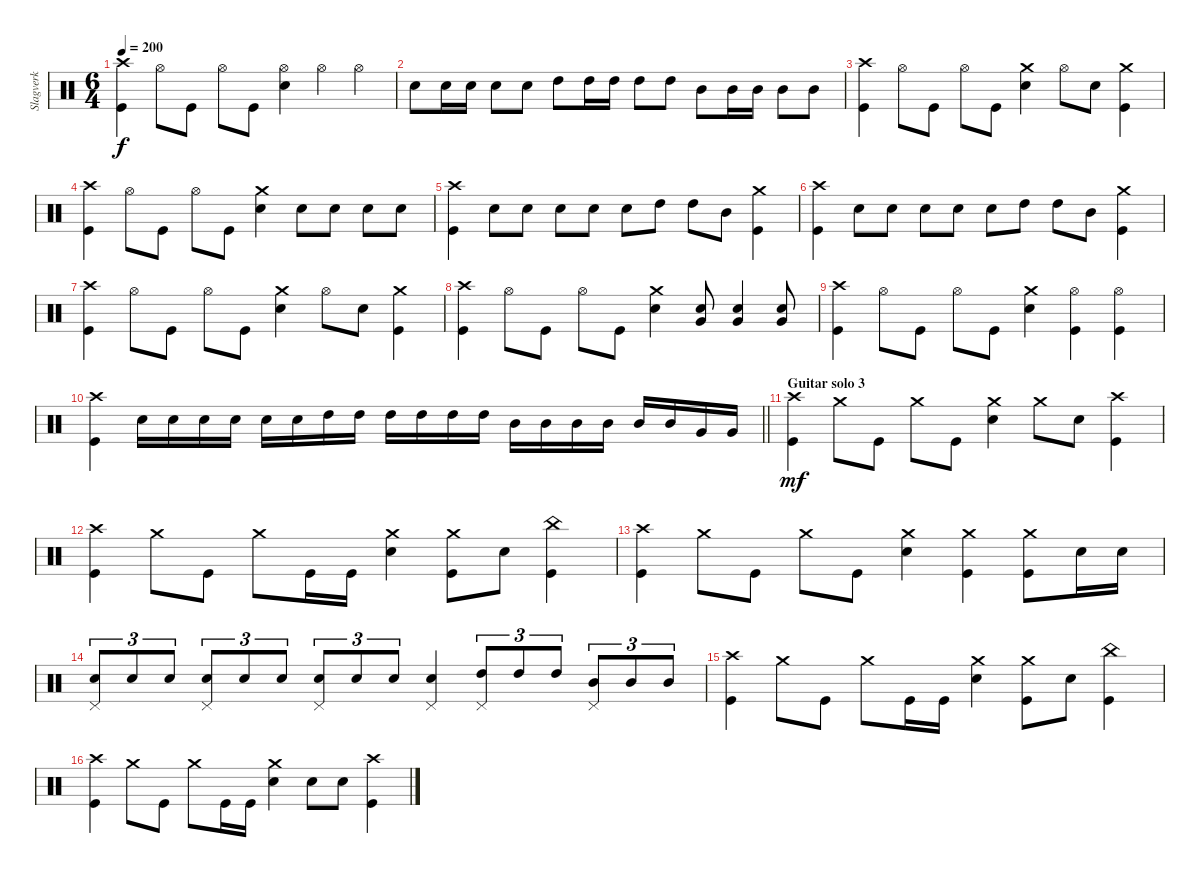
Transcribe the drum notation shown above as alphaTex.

\track ("Slagverk" "Slagverk") {instrument percussion}
\staff {score}
\articulation defaults
\ts (6 4)
\tempo 200
\clef neutral
\ks c
("Crash high (hit)" "Kick (hit)").4{dy f} "Hi-Hat (open)".8 "Kick (hit)".8 "Hi-Hat (open)".8 "Kick (hit)".8 ("Hi-Hat (open)" "Electric Snare (hit)").4 "Hi-Hat (open)".4 "Hi-Hat (open)".4 |
"Electric Snare (hit)".8 "Electric Snare (hit)".16 "Electric Snare (hit)".16 "Electric Snare (hit)".8 "Electric Snare (hit)".8 "High Tom (hit)".8 "High Tom (hit)".16 "High Tom (hit)".16 "High Tom (hit)".8 "High Tom (hit)".8 "Mid Tom (hit)".8 "Mid Tom (hit)".16 "Mid Tom (hit)".16 "Mid Tom (hit)".8 "Mid Tom (hit)".8 |
("Crash high (hit)" "Kick (hit)").4 "Hi-Hat (open)".8 "Kick (hit)".8 "Hi-Hat (open)".8 "Kick (hit)".8 ("Crash medium (hit)" "Electric Snare (hit)").4 "Hi-Hat (open)".8 "Electric Snare (hit)".8 ("Crash medium (hit)" "Kick (hit)").4 |
("Crash high (hit)" "Kick (hit)").4 "Hi-Hat (open)".8 "Kick (hit)".8 "Hi-Hat (open)".8 "Kick (hit)".8 ("Crash medium (hit)" "Electric Snare (hit)").4 "Electric Snare (hit)".8 "Electric Snare (hit)".8 "Electric Snare (hit)".8 "Electric Snare (hit)".8 |
("Crash high (hit)" "Kick (hit)").4 "Electric Snare (hit)".8 "Electric Snare (hit)".8 "Electric Snare (hit)".8 "Electric Snare (hit)".8 "Electric Snare (hit)".8 "High Tom (hit)".8 "High Tom (hit)".8 "Mid Tom (hit)".8 ("Crash medium (hit)" "Kick (hit)").4 |
("Crash high (hit)" "Kick (hit)").4 "Electric Snare (hit)".8 "Electric Snare (hit)".8 "Electric Snare (hit)".8 "Electric Snare (hit)".8 "Electric Snare (hit)".8 "High Tom (hit)".8 "High Tom (hit)".8 "Mid Tom (hit)".8 ("Crash medium (hit)" "Kick (hit)").4 |
("Crash high (hit)" "Kick (hit)").4 "Hi-Hat (open)".8 "Kick (hit)".8 "Hi-Hat (open)".8 "Kick (hit)".8 ("Crash medium (hit)" "Electric Snare (hit)").4 "Hi-Hat (open)".8 "Electric Snare (hit)".8 ("Crash medium (hit)" "Kick (hit)").4 |
("Crash high (hit)" "Kick (hit)").4 "Hi-Hat (open)".8 "Kick (hit)".8 "Hi-Hat (open)".8 "Kick (hit)".8 ("Crash medium (hit)" "Electric Snare (hit)").4 ("Electric Snare (hit)" "Very Low Tom (hit)").8 ("Electric Snare (hit)" "Very Low Tom (hit)").4 ("Electric Snare (hit)" "Very Low Tom (hit)").8 |
("Crash high (hit)" "Kick (hit)").4 "Hi-Hat (open)".8 "Kick (hit)".8 "Hi-Hat (open)".8 "Kick (hit)".8 ("Crash medium (hit)" "Electric Snare (hit)").4 ("Hi-Hat (open)" "Kick (hit)").4 ("Hi-Hat (open)" "Kick (hit)").4 |
\barLineRight lightlight
("Crash high (hit)" "Kick (hit)").4 "Electric Snare (hit)".16 "Electric Snare (hit)".16 "Electric Snare (hit)".16 "Electric Snare (hit)".16 "Electric Snare (hit)".16 "Electric Snare (hit)".16 "High Tom (hit)".16 "High Tom (hit)".16 "High Tom (hit)".16 "High Tom (hit)".16 "High Tom (hit)".16 "High Tom (hit)".16 "Mid Tom (hit)".16 "Mid Tom (hit)".16 "Mid Tom (hit)".16 "Mid Tom (hit)".16 "Mid Tom (hit)".16 "Mid Tom (hit)".16 "Very Low Tom (hit)".16 "Very Low Tom (hit)".16 |
\section ("" "Guitar solo 3")
("Crash high (hit)" "Kick (hit)").4{dy mf volume 10} "Crash medium (hit)".8 "Kick (hit)".8 "Crash medium (hit)".8 "Kick (hit)".8 ("Crash medium (hit)" "Electric Snare (hit)").4 "Crash medium (hit)".8 "Electric Snare (hit)".8 ("Crash high (hit)" "Kick (hit)").4 |
("Crash high (hit)" "Kick (hit)").4 "Crash medium (hit)".8 "Kick (hit)".8 "Crash medium (hit)".8 "Kick (hit)".16 "Kick (hit)".16 ("Crash medium (hit)" "Electric Snare (hit)").4 ("Crash medium (hit)" "Kick (hit)").8 "Electric Snare (hit)".8 ("China (hit)" "Kick (hit)").4 |
("Crash high (hit)" "Kick (hit)").4 "Crash medium (hit)".8 "Kick (hit)".8 "Crash medium (hit)".8 "Kick (hit)".8 ("Crash medium (hit)" "Electric Snare (hit)").4 ("Crash medium (hit)" "Kick (hit)").4 ("Crash medium (hit)" "Kick (hit)").8 "Electric Snare (hit)".16 "Electric Snare (hit)".16 |
("Electric Snare (hit)" "Pedal Hi-Hat (hit)").8{tu (3 2)} "Electric Snare (hit)".8{tu (3 2)} "Electric Snare (hit)".8{tu (3 2)} ("Electric Snare (hit)" "Pedal Hi-Hat (hit)").8{tu (3 2)} "Electric Snare (hit)".8{tu (3 2)} "Electric Snare (hit)".8{tu (3 2)} ("Electric Snare (hit)" "Pedal Hi-Hat (hit)").8{tu (3 2)} "Electric Snare (hit)".8{tu (3 2)} "Electric Snare (hit)".8{tu (3 2)} ("Electric Snare (hit)" "Pedal Hi-Hat (hit)").4 ("High Tom (hit)" "Pedal Hi-Hat (hit)").8{tu (3 2)} "High Tom (hit)".8{tu (3 2)} "High Tom (hit)".8{tu (3 2)} ("Mid Tom (hit)" "Pedal Hi-Hat (hit)").8{tu (3 2)} "Mid Tom (hit)".8{tu (3 2)} "Mid Tom (hit)".8{tu (3 2)} |
("Crash high (hit)" "Kick (hit)").4 "Crash medium (hit)".8 "Kick (hit)".8 "Crash medium (hit)".8 "Kick (hit)".16 "Kick (hit)".16 ("Crash medium (hit)" "Electric Snare (hit)").4 ("Crash medium (hit)" "Kick (hit)").8 "Electric Snare (hit)".8 ("China (hit)" "Kick (hit)").4 |
("Crash high (hit)" "Kick (hit)").4 "Crash medium (hit)".8 "Kick (hit)".8 "Crash medium (hit)".8 "Kick (hit)".16 "Kick (hit)".16 ("Crash medium (hit)" "Electric Snare (hit)").4 "Electric Snare (hit)".8 "Electric Snare (hit)".8 ("Crash high (hit)" "Kick (hit)").4
